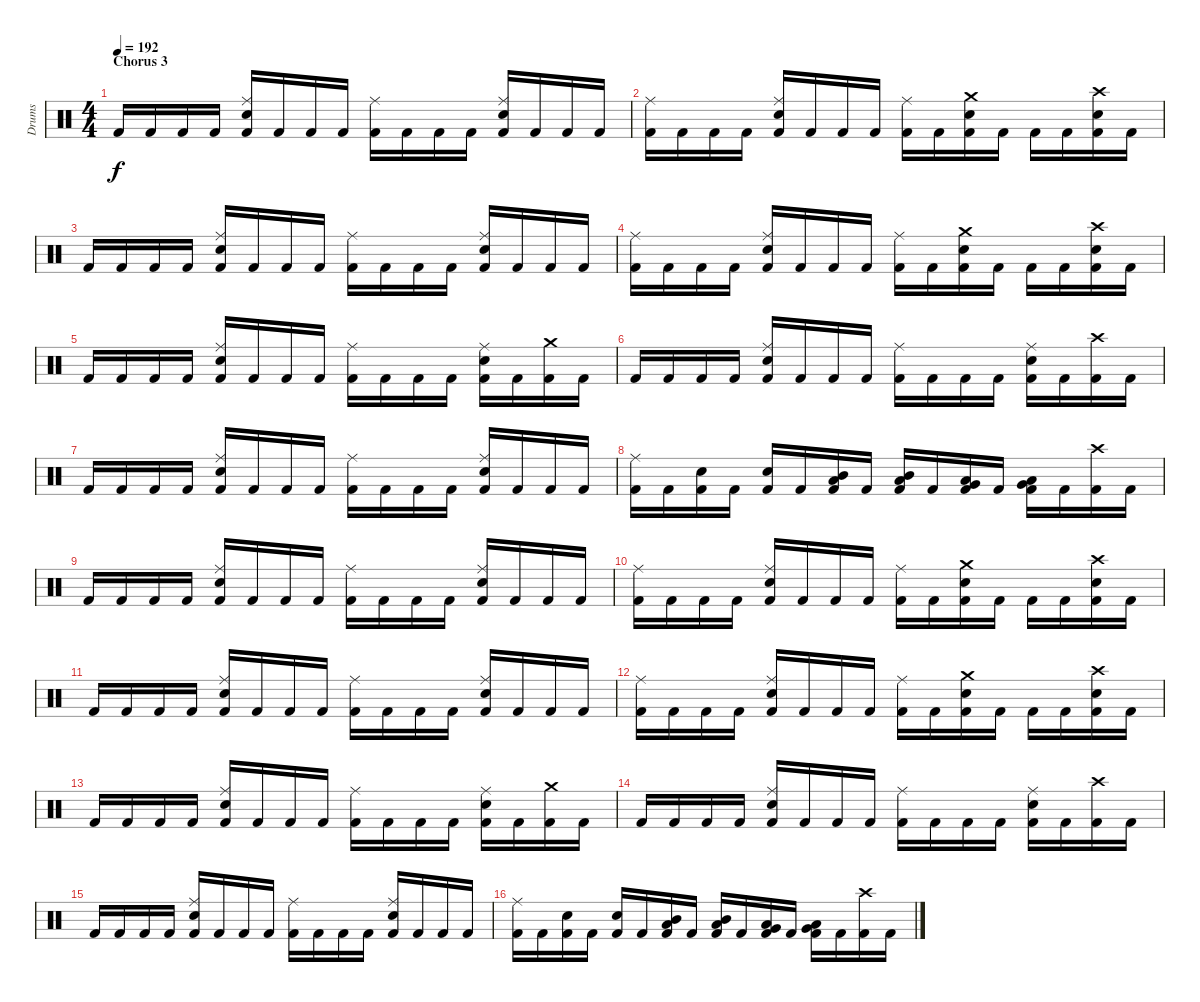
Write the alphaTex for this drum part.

\track ("Drums" "Drums") {instrument percussion}
\staff {score}
\articulation defaults
\ts (4 4)
\section ("" "Chorus 3")
\tempo 192
\clef neutral
\ks c "Kick (hit) 2".16{dy f} "Kick (hit) 2".16 "Kick (hit) 2".16 "Kick (hit) 2".16
("Ride (middle)" "Snare (hit) 2" "Kick (hit) 2").16 "Kick (hit) 2".16 "Kick (hit) 2".16 "Kick (hit) 2".16 ("Ride (middle)" "Kick (hit) 2").16 "Kick (hit) 2".16 "Kick (hit) 2".16 "Kick (hit) 2".16 ("Ride (middle)" "Snare (hit) 2" "Kick (hit) 2").16 "Kick (hit) 2".16 "Kick (hit) 2".16 "Kick (hit) 2".16 |
("Ride (middle)" "Kick (hit) 2").16 "Kick (hit) 2".16 "Kick (hit) 2".16 "Kick (hit) 2".16 ("Ride (middle)" "Snare (hit) 2" "Kick (hit) 2").16 "Kick (hit) 2".16 "Kick (hit) 2".16 "Kick (hit) 2".16 ("Ride (middle)" "Kick (hit) 2").16 "Kick (hit) 2".16 ("Crash medium (hit)" "Snare (hit) 2" "Kick (hit) 2").16 "Kick (hit) 2".16 "Kick (hit) 2".16 "Kick (hit) 2".16 ("Crash high (hit)" "Snare (hit) 2" "Kick (hit) 2").16 "Kick (hit) 2".16 |
"Kick (hit) 2".16 "Kick (hit) 2".16 "Kick (hit) 2".16 "Kick (hit) 2".16 ("Ride (middle)" "Snare (hit) 2" "Kick (hit) 2").16 "Kick (hit) 2".16 "Kick (hit) 2".16 "Kick (hit) 2".16 ("Ride (middle)" "Kick (hit) 2").16 "Kick (hit) 2".16 "Kick (hit) 2".16 "Kick (hit) 2".16 ("Ride (middle)" "Snare (hit) 2" "Kick (hit) 2").16 "Kick (hit) 2".16 "Kick (hit) 2".16 "Kick (hit) 2".16 |
("Ride (middle)" "Kick (hit) 2").16 "Kick (hit) 2".16 "Kick (hit) 2".16 "Kick (hit) 2".16 ("Ride (middle)" "Snare (hit) 2" "Kick (hit) 2").16 "Kick (hit) 2".16 "Kick (hit) 2".16 "Kick (hit) 2".16 ("Ride (middle)" "Kick (hit) 2").16 "Kick (hit) 2".16 ("Crash medium (hit)" "Snare (hit) 2" "Kick (hit) 2").16 "Kick (hit) 2".16 "Kick (hit) 2".16 "Kick (hit) 2".16 ("Crash high (hit)" "Snare (hit) 2" "Kick (hit) 2").16 "Kick (hit) 2".16 |
"Kick (hit) 2".16 "Kick (hit) 2".16 "Kick (hit) 2".16 "Kick (hit) 2".16 ("Ride (middle)" "Snare (hit) 2" "Kick (hit) 2").16 "Kick (hit) 2".16 "Kick (hit) 2".16 "Kick (hit) 2".16 ("Ride (middle)" "Kick (hit) 2").16 "Kick (hit) 2".16 "Kick (hit) 2".16 "Kick (hit) 2".16 ("Ride (middle)" "Snare (hit) 2" "Kick (hit) 2").16 "Kick (hit) 2".16 ("Crash medium (hit)" "Kick (hit) 2").16 "Kick (hit) 2".16 |
"Kick (hit) 2".16 "Kick (hit) 2".16 "Kick (hit) 2".16 "Kick (hit) 2".16 ("Ride (middle)" "Snare (hit) 2" "Kick (hit) 2").16 "Kick (hit) 2".16 "Kick (hit) 2".16 "Kick (hit) 2".16 ("Ride (middle)" "Kick (hit) 2").16 "Kick (hit) 2".16 "Kick (hit) 2".16 "Kick (hit) 2".16 ("Ride (middle)" "Snare (hit) 2" "Kick (hit) 2").16 "Kick (hit) 2".16 ("Crash high (hit)" "Kick (hit) 2").16 "Kick (hit) 2".16 |
"Kick (hit) 2".16 "Kick (hit) 2".16 "Kick (hit) 2".16 "Kick (hit) 2".16 ("Ride (middle)" "Snare (hit) 2" "Kick (hit) 2").16 "Kick (hit) 2".16 "Kick (hit) 2".16 "Kick (hit) 2".16 ("Ride (middle)" "Kick (hit) 2").16 "Kick (hit) 2".16 "Kick (hit) 2".16 "Kick (hit) 2".16 ("Ride (middle)" "Snare (hit) 2" "Kick (hit) 2").16 "Kick (hit) 2".16 "Kick (hit) 2".16 "Kick (hit) 2".16 |
("Ride (middle)" "Kick (hit) 2").16 "Kick (hit) 2".16 ("Snare (hit) 2" "Kick (hit) 2").16 "Kick (hit) 2".16 ("Snare (hit) 2" "Kick (hit) 2").16 "Kick (hit) 2".16 ("Mid Tom (hit)" "Low Tom (hit)" "Kick (hit) 2").16 "Kick (hit) 2".16 ("Mid Tom (hit)" "Low Tom (hit)" "Kick (hit) 2").16 "Kick (hit) 2".16 ("Low Tom (hit)" "Very Low Tom (hit)" "Kick (hit) 2").16 "Kick (hit) 2".16 ("Low Tom (hit)" "Very Low Tom (hit)" "Kick (hit) 2").16 "Kick (hit) 2".16 ("Crash high (hit)" "Kick (hit) 2").16 "Kick (hit) 2".16 |
"Kick (hit) 2".16 "Kick (hit) 2".16 "Kick (hit) 2".16 "Kick (hit) 2".16 ("Ride (middle)" "Snare (hit) 2" "Kick (hit) 2").16 "Kick (hit) 2".16 "Kick (hit) 2".16 "Kick (hit) 2".16 ("Ride (middle)" "Kick (hit) 2").16 "Kick (hit) 2".16 "Kick (hit) 2".16 "Kick (hit) 2".16 ("Ride (middle)" "Snare (hit) 2" "Kick (hit) 2").16 "Kick (hit) 2".16 "Kick (hit) 2".16 "Kick (hit) 2".16 |
("Ride (middle)" "Kick (hit) 2").16 "Kick (hit) 2".16 "Kick (hit) 2".16 "Kick (hit) 2".16 ("Ride (middle)" "Snare (hit) 2" "Kick (hit) 2").16 "Kick (hit) 2".16 "Kick (hit) 2".16 "Kick (hit) 2".16 ("Ride (middle)" "Kick (hit) 2").16 "Kick (hit) 2".16 ("Crash medium (hit)" "Snare (hit) 2" "Kick (hit) 2").16 "Kick (hit) 2".16 "Kick (hit) 2".16 "Kick (hit) 2".16 ("Crash high (hit)" "Snare (hit) 2" "Kick (hit) 2").16 "Kick (hit) 2".16 |
"Kick (hit) 2".16 "Kick (hit) 2".16 "Kick (hit) 2".16 "Kick (hit) 2".16 ("Ride (middle)" "Snare (hit) 2" "Kick (hit) 2").16 "Kick (hit) 2".16 "Kick (hit) 2".16 "Kick (hit) 2".16 ("Ride (middle)" "Kick (hit) 2").16 "Kick (hit) 2".16 "Kick (hit) 2".16 "Kick (hit) 2".16 ("Ride (middle)" "Snare (hit) 2" "Kick (hit) 2").16 "Kick (hit) 2".16 "Kick (hit) 2".16 "Kick (hit) 2".16 |
("Ride (middle)" "Kick (hit) 2").16 "Kick (hit) 2".16 "Kick (hit) 2".16 "Kick (hit) 2".16 ("Ride (middle)" "Snare (hit) 2" "Kick (hit) 2").16 "Kick (hit) 2".16 "Kick (hit) 2".16 "Kick (hit) 2".16 ("Ride (middle)" "Kick (hit) 2").16 "Kick (hit) 2".16 ("Crash medium (hit)" "Snare (hit) 2" "Kick (hit) 2").16 "Kick (hit) 2".16 "Kick (hit) 2".16 "Kick (hit) 2".16 ("Crash high (hit)" "Snare (hit) 2" "Kick (hit) 2").16 "Kick (hit) 2".16 |
"Kick (hit) 2".16 "Kick (hit) 2".16 "Kick (hit) 2".16 "Kick (hit) 2".16 ("Ride (middle)" "Snare (hit) 2" "Kick (hit) 2").16 "Kick (hit) 2".16 "Kick (hit) 2".16 "Kick (hit) 2".16 ("Ride (middle)" "Kick (hit) 2").16 "Kick (hit) 2".16 "Kick (hit) 2".16 "Kick (hit) 2".16 ("Ride (middle)" "Snare (hit) 2" "Kick (hit) 2").16 "Kick (hit) 2".16 ("Crash medium (hit)" "Kick (hit) 2").16 "Kick (hit) 2".16 |
"Kick (hit) 2".16 "Kick (hit) 2".16 "Kick (hit) 2".16 "Kick (hit) 2".16 ("Ride (middle)" "Snare (hit) 2" "Kick (hit) 2").16 "Kick (hit) 2".16 "Kick (hit) 2".16 "Kick (hit) 2".16 ("Ride (middle)" "Kick (hit) 2").16 "Kick (hit) 2".16 "Kick (hit) 2".16 "Kick (hit) 2".16 ("Ride (middle)" "Snare (hit) 2" "Kick (hit) 2").16 "Kick (hit) 2".16 ("Crash high (hit)" "Kick (hit) 2").16 "Kick (hit) 2".16 |
"Kick (hit) 2".16 "Kick (hit) 2".16 "Kick (hit) 2".16 "Kick (hit) 2".16 ("Ride (middle)" "Snare (hit) 2" "Kick (hit) 2").16 "Kick (hit) 2".16 "Kick (hit) 2".16 "Kick (hit) 2".16 ("Ride (middle)" "Kick (hit) 2").16 "Kick (hit) 2".16 "Kick (hit) 2".16 "Kick (hit) 2".16 ("Ride (middle)" "Snare (hit) 2" "Kick (hit) 2").16 "Kick (hit) 2".16 "Kick (hit) 2".16 "Kick (hit) 2".16 |
("Ride (middle)" "Kick (hit) 2").16 "Kick (hit) 2".16 ("Snare (hit) 2" "Kick (hit) 2").16 "Kick (hit) 2".16 ("Snare (hit) 2" "Kick (hit) 2").16 "Kick (hit) 2".16 ("Mid Tom (hit)" "Low Tom (hit)" "Kick (hit) 2").16 "Kick (hit) 2".16 ("Mid Tom (hit)" "Low Tom (hit)" "Kick (hit) 2").16 "Kick (hit) 2".16 ("Low Tom (hit)" "Very Low Tom (hit)" "Kick (hit) 2").16 "Kick (hit) 2".16 ("Low Tom (hit)" "Very Low Tom (hit)" "Kick (hit) 2").16 "Kick (hit) 2".16 ("Crash high (hit)" "Kick (hit) 2").16 "Kick (hit) 2".16
